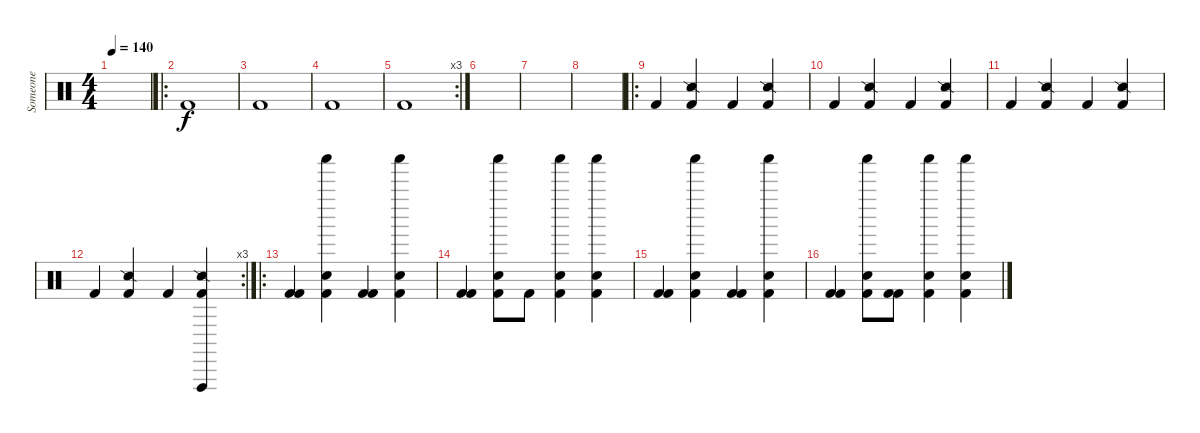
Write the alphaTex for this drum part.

\track ("Someone" "Someone") {instrument percussion}
\staff {score}
\articulation defaults
\ts (4 4)
\tempo 140
\clef neutral
\ks c
|
\ro "Kick (hit) 2".1
|
"Kick (hit) 2".1 |
"Kick (hit) 2".1 |
\rc 3 "Kick (hit) 2".1
|
|
|
|
\ro "Kick (hit) 2".4
("Kick (hit) 2" "Snare (side stick) 2").4 "Kick (hit) 2".4 ("Kick (hit) 2" "Snare (side stick) 2").4 |
"Kick (hit) 2".4 ("Kick (hit) 2" "Snare (side stick) 2").4 "Kick (hit) 2".4 ("Kick (hit) 2" "Snare (side stick) 2").4 |
"Kick (hit) 2".4 ("Kick (hit) 2" "Snare (side stick) 2").4 "Kick (hit) 2".4 ("Kick (hit) 2" "Snare (side stick) 2").4 |
\rc 3 "Kick (hit) 2".4
("Kick (hit) 2" "Snare (side stick) 2").4 "Kick (hit) 2".4 ("Vibraslap (hit)" "Kick (hit) 2" "Snare (side stick) 2").4 |
\ro
("Kick (hit) 2" "Kick (hit) 2").4 ("Kick (hit) 2" "Snare (hit) 2" "Shaker (hit)").4 ("Kick (hit) 2" "Kick (hit) 2").4 ("Kick (hit) 2" "Snare (hit) 2" "Shaker (hit)").4 |
("Kick (hit) 2" "Kick (hit) 2").4 ("Kick (hit) 2" "Snare (hit) 2" "Shaker (hit)").8 "Kick (hit) 2".8 ("Kick (hit) 2" "Snare (hit) 2" "Shaker (hit)").4 ("Kick (hit) 2" "Snare (hit) 2" "Shaker (hit)").4 |
("Kick (hit) 2" "Kick (hit) 2").4 ("Kick (hit) 2" "Snare (hit) 2" "Shaker (hit)").4 ("Kick (hit) 2" "Kick (hit) 2").4 ("Kick (hit) 2" "Snare (hit) 2" "Shaker (hit)").4 |
("Kick (hit) 2" "Kick (hit) 2").4 ("Kick (hit) 2" "Snare (hit) 2" "Shaker (hit)").8 ("Kick (hit) 2" "Kick (hit) 2").8 ("Kick (hit) 2" "Snare (hit) 2" "Shaker (hit)").4 ("Kick (hit) 2" "Snare (hit) 2" "Shaker (hit)").4
